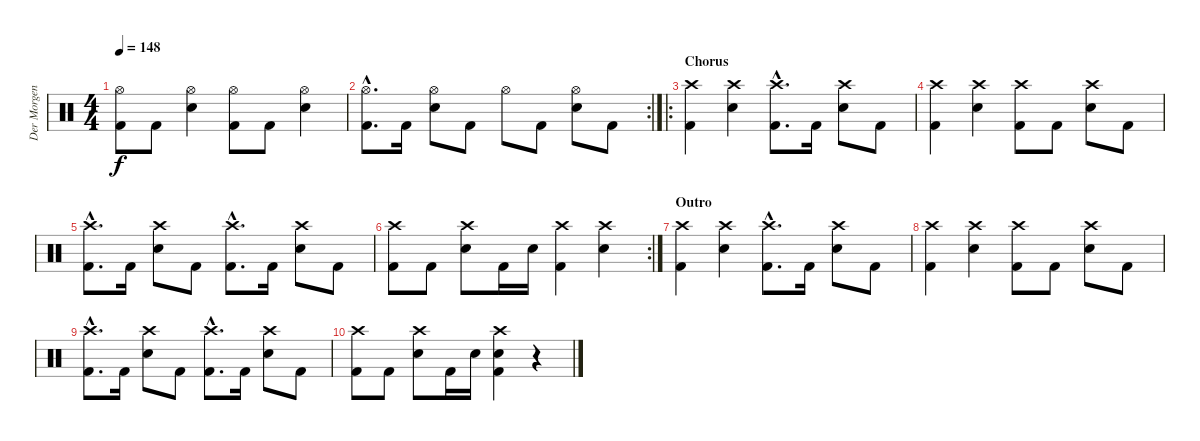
\track ("Der Morgenstern" "Der Morgen") {instrument percussion}
\staff {score}
\articulation defaults
\ts (4 4)
\tempo 148
\clef neutral
\ks c
("Kick (hit) 2" "Hi-Hat (open)").8{dy f} "Kick (hit) 2".8 ("Snare (hit) 2" "Hi-Hat (open)").4 ("Kick (hit) 2" "Hi-Hat (open)").8 "Kick (hit) 2".8 ("Snare (hit) 2" "Hi-Hat (open)").4 |
\rc 2
("Kick (hit) 2"{hac} "Hi-Hat (open)"{hac}).8{d} "Kick (hit) 2".16 ("Snare (hit) 2" "Hi-Hat (open)").8 "Kick (hit) 2".8 "Hi-Hat (open)".8 "Kick (hit) 2".8 ("Snare (hit) 2" "Hi-Hat (open)").8 "Kick (hit) 2".8 |
\ro
\section ("" "Chorus")
("Crash high (hit)" "Kick (hit) 2").4 ("Crash high (hit)" "Snare (hit) 2").4 ("Crash high (hit)"{hac} "Kick (hit) 2"{hac}).8{d} "Kick (hit) 2".16 ("Crash high (hit)" "Snare (hit) 2").8 "Kick (hit) 2".8 |
("Crash high (hit)" "Kick (hit) 2").4 ("Crash high (hit)" "Snare (hit) 2").4 ("Crash high (hit)" "Kick (hit) 2").8 "Kick (hit) 2".8 ("Crash high (hit)" "Snare (hit) 2").8 "Kick (hit) 2".8 |
("Crash high (hit)"{hac} "Kick (hit) 2"{hac}).8{d} "Kick (hit) 2".16 ("Crash high (hit)" "Snare (hit) 2").8 "Kick (hit) 2".8 ("Crash high (hit)"{hac} "Kick (hit) 2"{hac}).8{d} "Kick (hit) 2".16 ("Crash high (hit)" "Snare (hit) 2").8 "Kick (hit) 2".8 |
\rc 2
("Kick (hit) 2" "Crash high (hit)").8 "Kick (hit) 2".8 ("Snare (hit) 2" "Crash high (hit)").8 "Kick (hit) 2".16 "Snare (hit) 2".16 ("Kick (hit) 2" "Crash high (hit)").4 ("Snare (hit) 2" "Crash high (hit)").4 |
\section ("" "Outro")
("Crash high (hit)" "Kick (hit) 2").4 ("Crash high (hit)" "Snare (hit) 2").4 ("Crash high (hit)"{hac} "Kick (hit) 2"{hac}).8{d} "Kick (hit) 2".16 ("Crash high (hit)" "Snare (hit) 2").8 "Kick (hit) 2".8 |
("Crash high (hit)" "Kick (hit) 2").4 ("Crash high (hit)" "Snare (hit) 2").4 ("Crash high (hit)" "Kick (hit) 2").8 "Kick (hit) 2".8 ("Crash high (hit)" "Snare (hit) 2").8 "Kick (hit) 2".8 |
("Crash high (hit)"{hac} "Kick (hit) 2"{hac}).8{d} "Kick (hit) 2".16 ("Crash high (hit)" "Snare (hit) 2").8 "Kick (hit) 2".8 ("Crash high (hit)"{hac} "Kick (hit) 2"{hac}).8{d} "Kick (hit) 2".16 ("Crash high (hit)" "Snare (hit) 2").8 "Kick (hit) 2".8 |
("Kick (hit) 2" "Crash high (hit)").8 "Kick (hit) 2".8 ("Snare (hit) 2" "Crash high (hit)").8 "Kick (hit) 2".16 "Snare (hit) 2".16 ("Kick (hit) 2" "Crash high (hit)" "Snare (hit) 2").4 r.4
